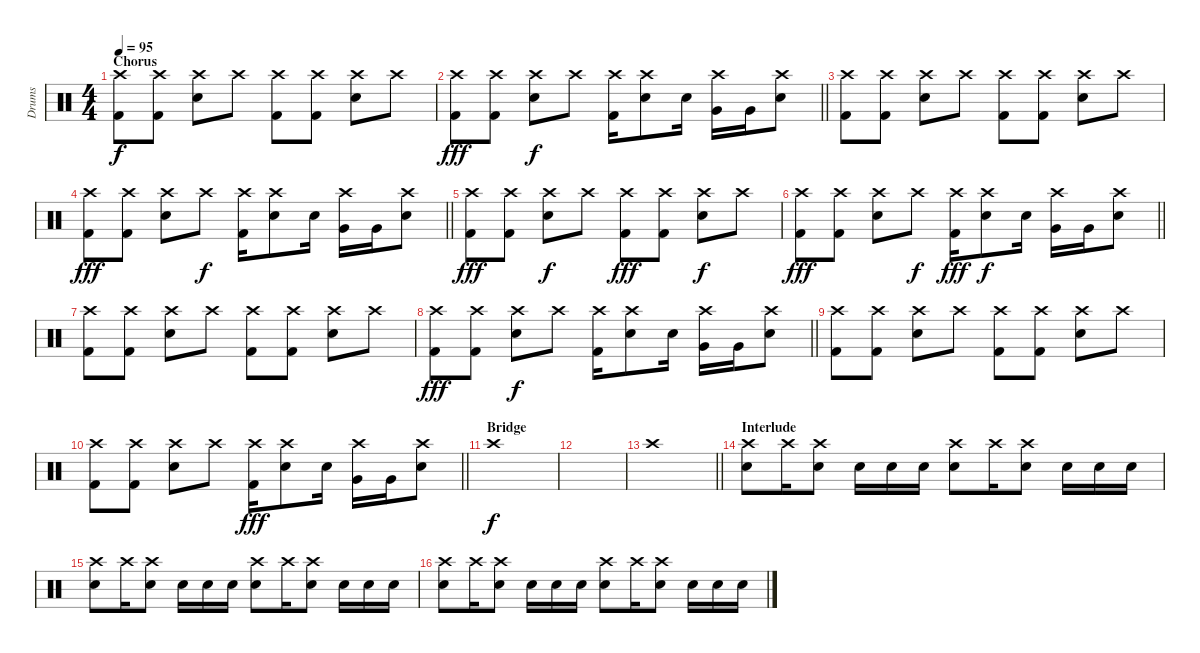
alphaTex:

\track ("Drums" "Drums") {instrument percussion}
\staff {score}
\articulation defaults
\ts (4 4)
\section ("" "Chorus")
\tempo 95
\clef neutral
\ks c
("Crash high (hit)" "Kick (hit) 2").8{dy f} ("Crash high (hit)" "Kick (hit) 2").8 ("Crash high (hit)" "Snare (hit) 2").8 "Crash high (hit)".8 ("Crash high (hit)" "Kick (hit) 2").8 ("Crash high (hit)" "Kick (hit) 2").8 ("Crash high (hit)" "Snare (hit) 2").8 "Crash high (hit)".8 |
\barLineRight lightlight
("Crash high (hit)" "Kick (hit) 2").8{dy fff} ("Crash high (hit)" "Kick (hit) 2").8 ("Crash high (hit)" "Snare (hit) 2").8{dy f} "Crash high (hit)".8 ("Kick (hit) 2" "Crash high (hit)").16 ("Snare (hit) 2" "Crash high (hit)").8 "Snare (hit) 2".16 ("Very Low Tom (hit)" "Crash high (hit)").16 "Very Low Tom (hit)".16 ("Snare (hit) 2" "Crash high (hit)").8 |
("Crash high (hit)" "Kick (hit) 2").8 ("Crash high (hit)" "Kick (hit) 2").8 ("Crash high (hit)" "Snare (hit) 2").8 "Crash high (hit)".8 ("Crash high (hit)" "Kick (hit) 2").8 ("Crash high (hit)" "Kick (hit) 2").8 ("Crash high (hit)" "Snare (hit) 2").8 "Crash high (hit)".8 |
\barLineRight lightlight
("Crash high (hit)" "Kick (hit) 2").8{dy fff} ("Crash high (hit)" "Kick (hit) 2").8 ("Crash high (hit)" "Snare (hit) 2").8 "Crash high (hit)".8{dy f} ("Kick (hit) 2" "Crash high (hit)").16 ("Snare (hit) 2" "Crash high (hit)").8 "Snare (hit) 2".16 ("Very Low Tom (hit)" "Crash high (hit)").16 "Very Low Tom (hit)".16 ("Snare (hit) 2" "Crash high (hit)").8 |
("Crash high (hit)" "Kick (hit) 2").8{dy fff} ("Crash high (hit)" "Kick (hit) 2").8 ("Crash high (hit)" "Snare (hit) 2").8{dy f} "Crash high (hit)".8 ("Crash high (hit)" "Kick (hit) 2").8{dy fff} ("Crash high (hit)" "Kick (hit) 2").8 ("Crash high (hit)" "Snare (hit) 2").8{dy f} "Crash high (hit)".8 |
\barLineRight lightlight
("Crash high (hit)" "Kick (hit) 2").8{dy fff} ("Crash high (hit)" "Kick (hit) 2").8 ("Crash high (hit)" "Snare (hit) 2").8 "Crash high (hit)".8{dy f} ("Kick (hit) 2" "Crash high (hit)").16{dy fff} ("Snare (hit) 2" "Crash high (hit)").8{dy f} "Snare (hit) 2".16 ("Very Low Tom (hit)" "Crash high (hit)").16 "Very Low Tom (hit)".16 ("Snare (hit) 2" "Crash high (hit)").8 |
("Crash high (hit)" "Kick (hit) 2").8 ("Crash high (hit)" "Kick (hit) 2").8 ("Crash high (hit)" "Snare (hit) 2").8 "Crash high (hit)".8 ("Crash high (hit)" "Kick (hit) 2").8 ("Crash high (hit)" "Kick (hit) 2").8 ("Crash high (hit)" "Snare (hit) 2").8 "Crash high (hit)".8 |
\barLineRight lightlight
("Crash high (hit)" "Kick (hit) 2").8{dy fff} ("Crash high (hit)" "Kick (hit) 2").8 ("Crash high (hit)" "Snare (hit) 2").8{dy f} "Crash high (hit)".8 ("Kick (hit) 2" "Crash high (hit)").16 ("Snare (hit) 2" "Crash high (hit)").8 "Snare (hit) 2".16 ("Very Low Tom (hit)" "Crash high (hit)").16 "Very Low Tom (hit)".16 ("Snare (hit) 2" "Crash high (hit)").8 |
("Crash high (hit)" "Kick (hit) 2").8 ("Crash high (hit)" "Kick (hit) 2").8 ("Crash high (hit)" "Snare (hit) 2").8 "Crash high (hit)".8 ("Crash high (hit)" "Kick (hit) 2").8 ("Crash high (hit)" "Kick (hit) 2").8 ("Crash high (hit)" "Snare (hit) 2").8 "Crash high (hit)".8 |
\barLineRight lightlight
("Crash high (hit)" "Kick (hit) 2").8 ("Crash high (hit)" "Kick (hit) 2").8 ("Crash high (hit)" "Snare (hit) 2").8 "Crash high (hit)".8 ("Kick (hit) 2" "Crash high (hit)").16{dy fff} ("Snare (hit) 2" "Crash high (hit)").8 "Snare (hit) 2".16 ("Very Low Tom (hit)" "Crash high (hit)").16 "Very Low Tom (hit)".16 ("Snare (hit) 2" "Crash high (hit)").8 |
\section ("" "Bridge")
"Crash high (hit)".1{dy f} |
|
\barLineRight lightlight "Crash high (hit)".1
|
\section ("" "Interlude")
("Crash high (hit)" "Snare (hit) 2").8 "Crash high (hit)".16 ("Snare (hit) 2" "Crash high (hit)").8 "Snare (hit) 2".16 "Snare (hit) 2".16 "Snare (hit) 2".16 ("Crash high (hit)" "Snare (hit) 2").8 "Crash high (hit)".16 ("Snare (hit) 2" "Crash high (hit)").8 "Snare (hit) 2".16 "Snare (hit) 2".16 "Snare (hit) 2".16 |
("Crash high (hit)" "Snare (hit) 2").8 "Crash high (hit)".16 ("Snare (hit) 2" "Crash high (hit)").8 "Snare (hit) 2".16 "Snare (hit) 2".16 "Snare (hit) 2".16 ("Crash high (hit)" "Snare (hit) 2").8 "Crash high (hit)".16 ("Snare (hit) 2" "Crash high (hit)").8 "Snare (hit) 2".16 "Snare (hit) 2".16 "Snare (hit) 2".16 |
("Crash high (hit)" "Snare (hit) 2").8 "Crash high (hit)".16 ("Snare (hit) 2" "Crash high (hit)").8 "Snare (hit) 2".16 "Snare (hit) 2".16 "Snare (hit) 2".16 ("Crash high (hit)" "Snare (hit) 2").8 "Crash high (hit)".16 ("Snare (hit) 2" "Crash high (hit)").8 "Snare (hit) 2".16 "Snare (hit) 2".16 "Snare (hit) 2".16
